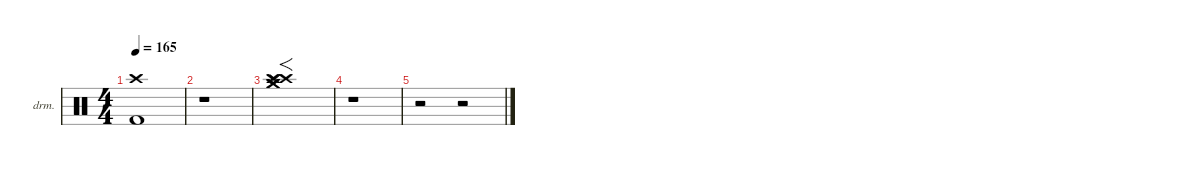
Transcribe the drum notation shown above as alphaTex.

\defaultSystemsLayout 4
\hideDynamics
\bracketExtendMode nobrackets
\firstSystemTrackNameOrientation horizontal
\otherSystemsTrackNameOrientation horizontal
\track ("Marty Chapman (Drums)" "drm.") {instrument percussion}
\staff {score}
\articulation defaults
\ts (4 4)
\tempo 165
\clef neutral
\ks c
("Crash high (hit)" "Kick (hit) 2").1{dy f beam Down} |
r.1{beam Down} |
("Crash high (hit)" "Crash medium (hit)" "Splash (hit)" "Crash high (hit)" "Crash medium (hit)" "Splash (hit)").1{f dy fff beam Down} |
r.1{beam Down} |
r.2{beam Down} r.2{beam Down}
